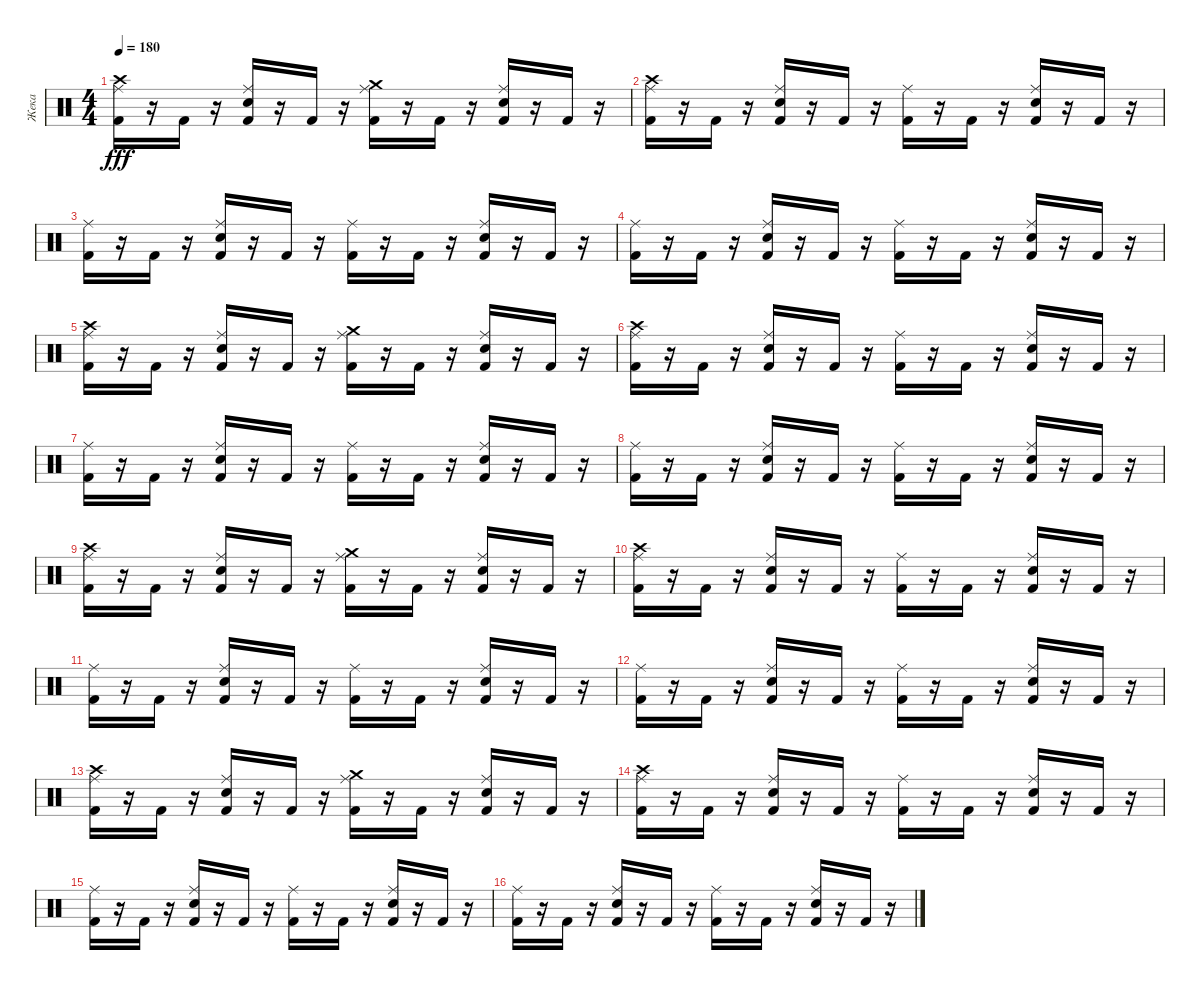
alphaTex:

\track ("Жека" "Жека") {instrument percussion}
\staff {score}
\articulation defaults
\ts (4 4)
\tempo 180
\clef neutral
\ks c
("Kick (hit) 2" "Ride (middle)" "Crash high (hit)").16{dy fff} r.16 "Kick (hit) 2".16 r.16 ("Kick (hit) 2" "Snare (hit) 2" "Ride (middle)").16 r.16 "Kick (hit) 2".16 r.16 ("Kick (hit) 2" "Ride (middle)" "Crash medium (hit)").16 r.16 "Kick (hit) 2".16 r.16 ("Kick (hit) 2" "Snare (hit) 2" "Ride (middle)").16 r.16 "Kick (hit) 2".16 r.16 |
("Kick (hit) 2" "Ride (middle)" "Crash high (hit)").16 r.16 "Kick (hit) 2".16 r.16 ("Kick (hit) 2" "Snare (hit) 2" "Ride (middle)").16 r.16 "Kick (hit) 2".16 r.16 ("Kick (hit) 2" "Ride (middle)").16 r.16 "Kick (hit) 2".16 r.16 ("Kick (hit) 2" "Snare (hit) 2" "Ride (middle)").16 r.16 "Kick (hit) 2".16 r.16 |
("Kick (hit) 2" "Ride (middle)").16 r.16 "Kick (hit) 2".16 r.16 ("Kick (hit) 2" "Snare (hit) 2" "Ride (middle)").16 r.16 "Kick (hit) 2".16 r.16 ("Kick (hit) 2" "Ride (middle)").16 r.16 "Kick (hit) 2".16 r.16 ("Kick (hit) 2" "Snare (hit) 2" "Ride (middle)").16 r.16 "Kick (hit) 2".16 r.16 |
("Kick (hit) 2" "Ride (middle)").16 r.16 "Kick (hit) 2".16 r.16 ("Kick (hit) 2" "Snare (hit) 2" "Ride (middle)").16 r.16 "Kick (hit) 2".16 r.16 ("Kick (hit) 2" "Ride (middle)").16 r.16 "Kick (hit) 2".16 r.16 ("Kick (hit) 2" "Snare (hit) 2" "Ride (middle)").16 r.16 "Kick (hit) 2".16 r.16 |
("Kick (hit) 2" "Ride (middle)" "Crash high (hit)").16 r.16 "Kick (hit) 2".16 r.16 ("Kick (hit) 2" "Snare (hit) 2" "Ride (middle)").16 r.16 "Kick (hit) 2".16 r.16 ("Kick (hit) 2" "Ride (middle)" "Crash medium (hit)").16 r.16 "Kick (hit) 2".16 r.16 ("Kick (hit) 2" "Snare (hit) 2" "Ride (middle)").16 r.16 "Kick (hit) 2".16 r.16 |
("Kick (hit) 2" "Ride (middle)" "Crash high (hit)").16 r.16 "Kick (hit) 2".16 r.16 ("Kick (hit) 2" "Snare (hit) 2" "Ride (middle)").16 r.16 "Kick (hit) 2".16 r.16 ("Kick (hit) 2" "Ride (middle)").16 r.16 "Kick (hit) 2".16 r.16 ("Kick (hit) 2" "Snare (hit) 2" "Ride (middle)").16 r.16 "Kick (hit) 2".16 r.16 |
("Kick (hit) 2" "Ride (middle)").16 r.16 "Kick (hit) 2".16 r.16 ("Kick (hit) 2" "Snare (hit) 2" "Ride (middle)").16 r.16 "Kick (hit) 2".16 r.16 ("Kick (hit) 2" "Ride (middle)").16 r.16 "Kick (hit) 2".16 r.16 ("Kick (hit) 2" "Snare (hit) 2" "Ride (middle)").16 r.16 "Kick (hit) 2".16 r.16 |
("Kick (hit) 2" "Ride (middle)").16 r.16 "Kick (hit) 2".16 r.16 ("Kick (hit) 2" "Snare (hit) 2" "Ride (middle)").16 r.16 "Kick (hit) 2".16 r.16 ("Kick (hit) 2" "Ride (middle)").16 r.16 "Kick (hit) 2".16 r.16 ("Kick (hit) 2" "Snare (hit) 2" "Ride (middle)").16 r.16 "Kick (hit) 2".16 r.16 |
("Kick (hit) 2" "Ride (middle)" "Crash high (hit)").16 r.16 "Kick (hit) 2".16 r.16 ("Kick (hit) 2" "Snare (hit) 2" "Ride (middle)").16 r.16 "Kick (hit) 2".16 r.16 ("Kick (hit) 2" "Ride (middle)" "Crash medium (hit)").16 r.16 "Kick (hit) 2".16 r.16 ("Kick (hit) 2" "Snare (hit) 2" "Ride (middle)").16 r.16 "Kick (hit) 2".16 r.16 |
("Kick (hit) 2" "Ride (middle)" "Crash high (hit)").16 r.16 "Kick (hit) 2".16 r.16 ("Kick (hit) 2" "Snare (hit) 2" "Ride (middle)").16 r.16 "Kick (hit) 2".16 r.16 ("Kick (hit) 2" "Ride (middle)").16 r.16 "Kick (hit) 2".16 r.16 ("Kick (hit) 2" "Snare (hit) 2" "Ride (middle)").16 r.16 "Kick (hit) 2".16 r.16 |
("Kick (hit) 2" "Ride (middle)").16 r.16 "Kick (hit) 2".16 r.16 ("Kick (hit) 2" "Snare (hit) 2" "Ride (middle)").16 r.16 "Kick (hit) 2".16 r.16 ("Kick (hit) 2" "Ride (middle)").16 r.16 "Kick (hit) 2".16 r.16 ("Kick (hit) 2" "Snare (hit) 2" "Ride (middle)").16 r.16 "Kick (hit) 2".16 r.16 |
("Kick (hit) 2" "Ride (middle)").16 r.16 "Kick (hit) 2".16 r.16 ("Kick (hit) 2" "Snare (hit) 2" "Ride (middle)").16 r.16 "Kick (hit) 2".16 r.16 ("Kick (hit) 2" "Ride (middle)").16 r.16 "Kick (hit) 2".16 r.16 ("Kick (hit) 2" "Snare (hit) 2" "Ride (middle)").16 r.16 "Kick (hit) 2".16 r.16 |
("Kick (hit) 2" "Ride (middle)" "Crash high (hit)").16 r.16 "Kick (hit) 2".16 r.16 ("Kick (hit) 2" "Snare (hit) 2" "Ride (middle)").16 r.16 "Kick (hit) 2".16 r.16 ("Kick (hit) 2" "Ride (middle)" "Crash medium (hit)").16 r.16 "Kick (hit) 2".16 r.16 ("Kick (hit) 2" "Snare (hit) 2" "Ride (middle)").16 r.16 "Kick (hit) 2".16 r.16 |
("Kick (hit) 2" "Ride (middle)" "Crash high (hit)").16 r.16 "Kick (hit) 2".16 r.16 ("Kick (hit) 2" "Snare (hit) 2" "Ride (middle)").16 r.16 "Kick (hit) 2".16 r.16 ("Kick (hit) 2" "Ride (middle)").16 r.16 "Kick (hit) 2".16 r.16 ("Kick (hit) 2" "Snare (hit) 2" "Ride (middle)").16 r.16 "Kick (hit) 2".16 r.16 |
("Kick (hit) 2" "Ride (middle)").16 r.16 "Kick (hit) 2".16 r.16 ("Kick (hit) 2" "Snare (hit) 2" "Ride (middle)").16 r.16 "Kick (hit) 2".16 r.16 ("Kick (hit) 2" "Ride (middle)").16 r.16 "Kick (hit) 2".16 r.16 ("Kick (hit) 2" "Snare (hit) 2" "Ride (middle)").16 r.16 "Kick (hit) 2".16 r.16 |
("Kick (hit) 2" "Ride (middle)").16 r.16 "Kick (hit) 2".16 r.16 ("Kick (hit) 2" "Snare (hit) 2" "Ride (middle)").16 r.16 "Kick (hit) 2".16 r.16 ("Kick (hit) 2" "Ride (middle)").16 r.16 "Kick (hit) 2".16 r.16 ("Kick (hit) 2" "Snare (hit) 2" "Ride (middle)").16 r.16 "Kick (hit) 2".16 r.16
